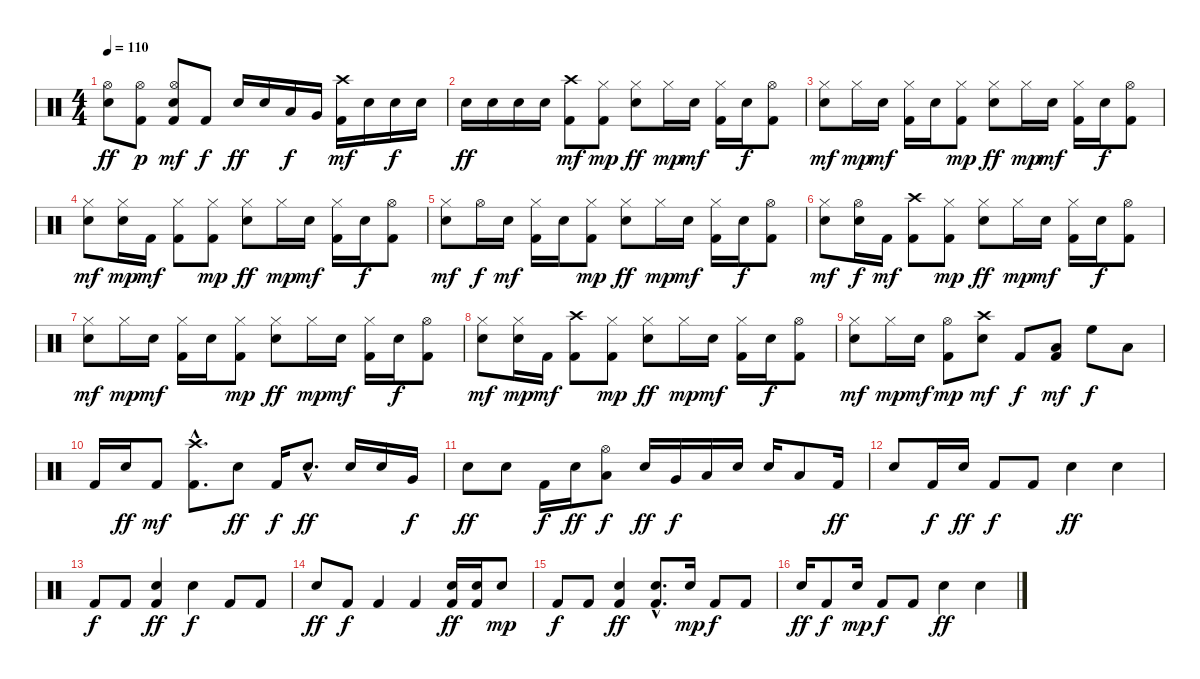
\track "" {instrument percussion}
\staff {score}
\articulation defaults
\ts (4 4)
\tempo 110
\clef neutral
\ks c
("Electric Snare (hit)" "Hi-Hat (open)").8{dy ff} ("Kick (hit) 2" "Hi-Hat (open)").8{dy p} ("Electric Snare (hit)" "Kick (hit) 2" "Hi-Hat (open)").8{dy mf} "Kick (hit) 2".8{dy f} "Electric Snare (hit)".16{dy ff} "Electric Snare (hit)".16 "Low Tom (hit)".16{dy f} "Very Low Tom (hit)".16 ("Kick (hit) 2" "Crash high (hit)").16{dy mf} "Electric Snare (hit)".16 "Electric Snare (hit)".16{dy f} "Electric Snare (hit)".16 |
"Electric Snare (hit)".16{dy ff} "Electric Snare (hit)".16 "Electric Snare (hit)".16 "Electric Snare (hit)".16 ("Kick (hit) 2" "Crash high (hit)").8{dy mf} ("Kick (hit) 2" "Hi-Hat (closed)").8{dy mp} ("Electric Snare (hit)" "Hi-Hat (closed)").8{dy ff} "Hi-Hat (closed)".16{dy mp} "Electric Snare (hit)".16{dy mf} ("Kick (hit) 2" "Hi-Hat (closed)").16 "Electric Snare (hit)".16{dy f} ("Kick (hit) 2" "Hi-Hat (open)").8 |
("Electric Snare (hit)" "Hi-Hat (closed)").8{dy mf} "Hi-Hat (closed)".16{dy mp} "Electric Snare (hit)".16{dy mf} ("Kick (hit) 2" "Hi-Hat (closed)").16 "Electric Snare (hit)".16 ("Kick (hit) 2" "Hi-Hat (closed)").8{dy mp} ("Electric Snare (hit)" "Hi-Hat (closed)").8{dy ff} "Hi-Hat (closed)".16{dy mp} "Electric Snare (hit)".16{dy mf} ("Kick (hit) 2" "Hi-Hat (closed)").16 "Electric Snare (hit)".16{dy f} ("Kick (hit) 2" "Hi-Hat (open)").8 |
("Electric Snare (hit)" "Hi-Hat (closed)").8{dy mf} ("Electric Snare (hit)" "Hi-Hat (closed)").16{dy mp} "Kick (hit) 2".16{dy mf} ("Kick (hit) 2" "Hi-Hat (closed)").8 ("Kick (hit) 2" "Hi-Hat (closed)").8{dy mp} ("Electric Snare (hit)" "Hi-Hat (closed)").8{dy ff} "Hi-Hat (closed)".16{dy mp} "Electric Snare (hit)".16{dy mf} ("Kick (hit) 2" "Hi-Hat (closed)").16 "Electric Snare (hit)".16{dy f} ("Kick (hit) 2" "Hi-Hat (open)").8 |
("Electric Snare (hit)" "Hi-Hat (closed)").8{dy mf} "Hi-Hat (open)".16{dy f} "Electric Snare (hit)".16{dy mf} ("Kick (hit) 2" "Hi-Hat (closed)").16 "Electric Snare (hit)".16 ("Kick (hit) 2" "Hi-Hat (closed)").8{dy mp} ("Electric Snare (hit)" "Hi-Hat (closed)").8{dy ff} "Hi-Hat (closed)".16{dy mp} "Electric Snare (hit)".16{dy mf} ("Kick (hit) 2" "Hi-Hat (closed)").16 "Electric Snare (hit)".16{dy f} ("Kick (hit) 2" "Hi-Hat (open)").8 |
("Electric Snare (hit)" "Hi-Hat (closed)").8{dy mf} ("Electric Snare (hit)" "Hi-Hat (open)").16{dy f} "Kick (hit) 2".16{dy mf} ("Kick (hit) 2" "Crash high (hit)").8 ("Kick (hit) 2" "Hi-Hat (closed)").8{dy mp} ("Electric Snare (hit)" "Hi-Hat (closed)").8{dy ff} "Hi-Hat (closed)".16{dy mp} "Electric Snare (hit)".16{dy mf} ("Kick (hit) 2" "Hi-Hat (closed)").16 "Electric Snare (hit)".16{dy f} ("Kick (hit) 2" "Hi-Hat (open)").8 |
("Electric Snare (hit)" "Hi-Hat (closed)").8{dy mf} "Hi-Hat (closed)".16{dy mp} "Electric Snare (hit)".16{dy mf} ("Kick (hit) 2" "Hi-Hat (closed)").16 "Electric Snare (hit)".16 ("Kick (hit) 2" "Hi-Hat (closed)").8{dy mp} ("Electric Snare (hit)" "Hi-Hat (closed)").8{dy ff} "Hi-Hat (closed)".16{dy mp} "Electric Snare (hit)".16{dy mf} ("Kick (hit) 2" "Hi-Hat (closed)").16 "Electric Snare (hit)".16{dy f} ("Kick (hit) 2" "Hi-Hat (open)").8 |
("Electric Snare (hit)" "Hi-Hat (closed)").8{dy mf} ("Electric Snare (hit)" "Hi-Hat (closed)").16{dy mp} "Kick (hit) 2".16{dy mf} ("Kick (hit) 2" "Crash high (hit)").8 ("Kick (hit) 2" "Hi-Hat (closed)").8{dy mp} ("Electric Snare (hit)" "Hi-Hat (closed)").8{dy ff} "Hi-Hat (closed)".16{dy mp} "Electric Snare (hit)".16{dy mf} ("Kick (hit) 2" "Hi-Hat (closed)").16 "Electric Snare (hit)".16{dy f} ("Kick (hit) 2" "Hi-Hat (open)").8 |
("Electric Snare (hit)" "Hi-Hat (closed)").8{dy mf} "Hi-Hat (closed)".16{dy mp} "Electric Snare (hit)".16{dy mf} ("Kick (hit) 2" "Hi-Hat (open)").8{dy mp} ("Electric Snare (hit)" "Crash high (hit)").8{dy mf} "Kick (hit) 2".8{dy f} ("Kick (hit) 2" "Low Floor Tom (hit)").8{dy mf} "High Floor Tom (hit)".8{dy f} "Low Floor Tom (hit)".8 |
"Kick (hit) 2".16 "Electric Snare (hit)".16{dy ff} "Kick (hit) 2".8{dy mf} ("Kick (hit) 2"{hac} "Crash high (hit)"{hac}).8{d} "Electric Snare (hit)".8{dy ff} "Kick (hit) 2".16{dy f} "Electric Snare (hit)"{hac}.8{d dy ff} "Electric Snare (hit)".16 "Electric Snare (hit)".16 "Very Low Tom (hit)".16{dy f} |
"Electric Snare (hit)".8{dy ff} "Electric Snare (hit)".8 "Kick (hit) 2".16{dy f} "Electric Snare (hit)".16{dy ff} ("Low Floor Tom (hit)" "Hi-Hat (open)").8{dy f} "Electric Snare (hit)".16{dy ff} "Very Low Tom (hit)".16{dy f} "Low Floor Tom (hit)".16 "Electric Snare (hit)".16 "Electric Snare (hit)".16 "Low Tom (hit)".8 "Kick (hit) 2".16{dy ff} |
"Electric Snare (hit)".8 "Kick (hit) 2".16{dy f} "Electric Snare (hit)".16{dy ff} "Kick (hit) 2".8{dy f} "Kick (hit) 2".8 "Electric Snare (hit)".4{dy ff} "Electric Snare (hit)".4 |
"Kick (hit) 2".8{dy f} "Kick (hit) 2".8 ("Kick (hit) 2" "Electric Snare (hit)").4{dy ff} "Electric Snare (hit)".4{dy f} "Kick (hit) 2".8 "Kick (hit) 2".8 |
"Electric Snare (hit)".8{dy ff} "Kick (hit) 2".8{dy f} "Kick (hit) 2".4 "Kick (hit) 2".4 ("Kick (hit) 2" "Electric Snare (hit)").16{dy ff} ("Kick (hit) 2" "Electric Snare (hit)").16 "Electric Snare (hit)".8{dy mp} |
"Kick (hit) 2".8{dy f} "Kick (hit) 2".8 ("Kick (hit) 2" "Electric Snare (hit)").4{dy ff} ("Kick (hit) 2"{hac} "Electric Snare (hit)"{hac}).8{d} "Electric Snare (hit)".16{dy mp} "Kick (hit) 2".8{dy f} "Kick (hit) 2".8 |
"Electric Snare (hit)".16{dy ff} "Kick (hit) 2".8{dy f} "Electric Snare (hit)".16{dy mp} "Kick (hit) 2".8{dy f} "Kick (hit) 2".8 "Electric Snare (hit)".4{dy ff} "Electric Snare (hit)".4
